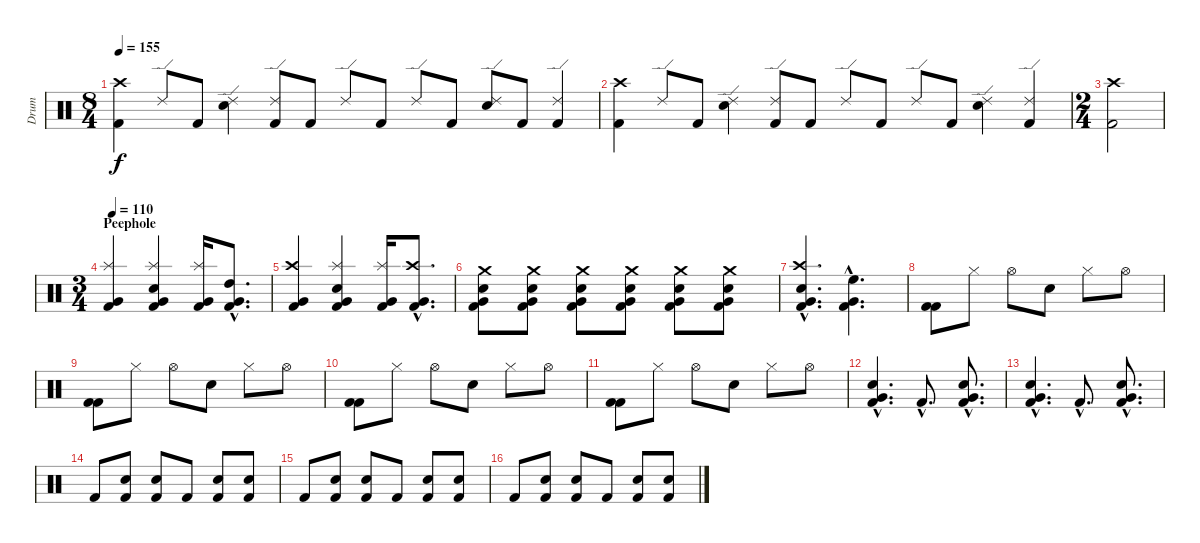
\track ("Drum" "Drum") {instrument percussion}
\staff {score}
\articulation defaults
\ts (8 4)
\tempo 155
\clef neutral
\ks c
("Kick (hit) 2" "Crash high (hit)").4{dy f} "Ride (edge) 2".8 "Kick (hit) 2".8 ("Electric Snare (hit)" "Ride (edge) 2").4 ("Kick (hit) 2" "Ride (edge) 2").8 "Kick (hit) 2".8 "Ride (edge) 2".8 "Kick (hit) 2".8 "Ride (edge) 2".8 "Kick (hit) 2".8 ("Electric Snare (hit)" "Ride (edge) 2").8 "Kick (hit) 2".8 ("Kick (hit) 2" "Ride (edge) 2").4 |
("Kick (hit) 2" "Crash high (hit)").4 "Ride (edge) 2".8 "Kick (hit) 2".8 ("Electric Snare (hit)" "Ride (edge) 2").4 ("Kick (hit) 2" "Ride (edge) 2").8 "Kick (hit) 2".8 "Ride (edge) 2".8 "Kick (hit) 2".8 "Ride (edge) 2".8 "Kick (hit) 2".8 ("Electric Snare (hit)" "Ride (edge) 2").4 ("Kick (hit) 2" "Ride (edge) 2").4 |
\ts (2 4)
("Kick (hit) 2" "Crash high (hit)").2 |
\ts (3 4)
\section ("" "Peephole")
\tempo 110
("Splash (hit)" "Kick (hit) 2" "Very Low Tom (hit)").4 ("Splash (hit)" "Kick (hit) 2" "Very Low Tom (hit)" "Electric Snare (hit)").4 ("Splash (hit)" "Kick (hit) 2" "Very Low Tom (hit)").16 ("High Tom (hit)"{hac} "Kick (hit) 2"{hac} "Very Low Tom (hit)"{hac}).8{d} |
("Crash high (hit)" "Kick (hit) 2" "Very Low Tom (hit)").4 ("Splash (hit)" "Kick (hit) 2" "Very Low Tom (hit)" "Electric Snare (hit)").4 ("Splash (hit)" "Kick (hit) 2" "Very Low Tom (hit)").16 ("Crash high (hit)"{hac} "Kick (hit) 2"{hac} "Very Low Tom (hit)"{hac}).8{d} |
("Crash medium (hit)" "Kick (hit) 2" "Very Low Tom (hit)" "Electric Snare (hit)").8 ("Crash medium (hit)" "Kick (hit) 2" "Very Low Tom (hit)" "Electric Snare (hit)").8 ("Crash medium (hit)" "Kick (hit) 2" "Very Low Tom (hit)" "Electric Snare (hit)").8 ("Crash medium (hit)" "Kick (hit) 2" "Very Low Tom (hit)" "Electric Snare (hit)").8 ("Crash medium (hit)" "Kick (hit) 2" "Very Low Tom (hit)" "Electric Snare (hit)").8 ("Crash medium (hit)" "Kick (hit) 2" "Very Low Tom (hit)" "Electric Snare (hit)").8 |
("Crash high (hit)"{hac} "Kick (hit) 2"{hac} "Very Low Tom (hit)"{hac} "Electric Snare (hit)"{hac}).4{d} ("Kick (hit) 2"{hac} "Very Low Tom (hit)"{hac} "High Floor Tom (hit)"{hac}).4{d} |
("Kick (hit) 2" "Kick (hit) 2").8 "Hi-Hat (closed)".8 "Hi-Hat (open)".8 "Snare (hit) 2".8 "Hi-Hat (closed)".8 "Hi-Hat (open)".8 |
("Kick (hit) 2" "Kick (hit) 2").8 "Hi-Hat (closed)".8 "Hi-Hat (open)".8 "Snare (hit) 2".8 "Hi-Hat (closed)".8 "Hi-Hat (open)".8 |
("Kick (hit) 2" "Kick (hit) 2").8 "Hi-Hat (closed)".8 "Hi-Hat (open)".8 "Snare (hit) 2".8 "Hi-Hat (closed)".8 "Hi-Hat (open)".8 |
("Kick (hit) 2" "Kick (hit) 2").8 "Hi-Hat (closed)".8 "Hi-Hat (open)".8 "Snare (hit) 2".8 "Hi-Hat (closed)".8 "Hi-Hat (open)".8 |
("Kick (hit) 2"{hac} "Very Low Tom (hit)"{hac} "Electric Snare (hit)"{hac}).4{d} "Kick (hit) 2"{hac}.8{d} ("Kick (hit) 2"{hac} "Very Low Tom (hit)"{hac} "Electric Snare (hit)"{hac}).8{d} |
("Kick (hit) 2"{hac} "Very Low Tom (hit)"{hac} "Electric Snare (hit)"{hac}).4{d} "Kick (hit) 2"{hac}.8{d} ("Kick (hit) 2"{hac} "Very Low Tom (hit)"{hac} "Electric Snare (hit)"{hac}).8{d} |
"Kick (hit) 2".8 ("Kick (hit) 2" "Electric Snare (hit)").8 ("Kick (hit) 2" "Electric Snare (hit)").8 "Kick (hit) 2".8 ("Kick (hit) 2" "Electric Snare (hit)").8 ("Kick (hit) 2" "Electric Snare (hit)").8 |
"Kick (hit) 2".8 ("Kick (hit) 2" "Electric Snare (hit)").8 ("Kick (hit) 2" "Electric Snare (hit)").8 "Kick (hit) 2".8 ("Kick (hit) 2" "Electric Snare (hit)").8 ("Kick (hit) 2" "Electric Snare (hit)").8 |
"Kick (hit) 2".8 ("Kick (hit) 2" "Electric Snare (hit)").8 ("Kick (hit) 2" "Electric Snare (hit)").8 "Kick (hit) 2".8 ("Kick (hit) 2" "Electric Snare (hit)").8 ("Kick (hit) 2" "Electric Snare (hit)").8
